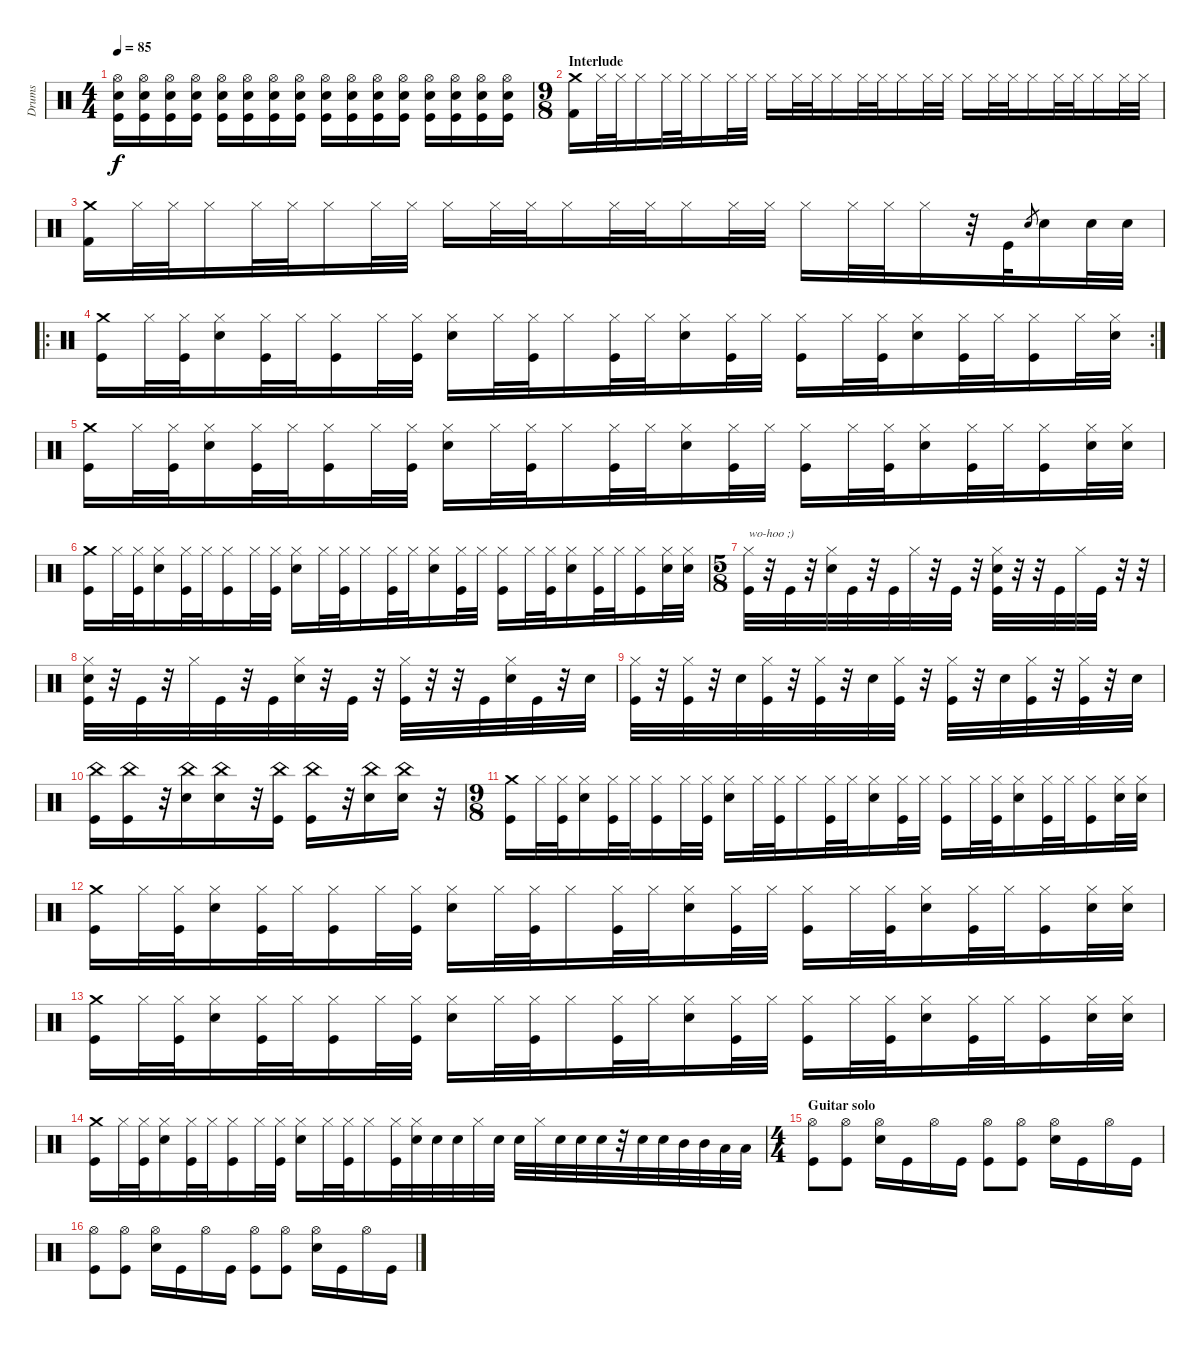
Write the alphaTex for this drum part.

\track ("Drums" "Drums") {instrument percussion}
\staff {score}
\articulation defaults
\ts (4 4)
\tempo 85
\clef neutral
\ks c
("Hi-Hat (open)" "Snare (hit) 2" "Kick (hit)").16{dy f} ("Hi-Hat (open)" "Snare (hit) 2" "Kick (hit)").16 ("Hi-Hat (open)" "Snare (hit) 2" "Kick (hit)").16 ("Hi-Hat (open)" "Snare (hit) 2" "Kick (hit)").16 ("Hi-Hat (open)" "Snare (hit) 2" "Kick (hit)").16 ("Hi-Hat (open)" "Snare (hit) 2" "Kick (hit)").16 ("Hi-Hat (open)" "Snare (hit) 2" "Kick (hit)").16 ("Hi-Hat (open)" "Snare (hit) 2" "Kick (hit)").16 ("Hi-Hat (open)" "Snare (hit) 2" "Kick (hit)").16 ("Hi-Hat (open)" "Snare (hit) 2" "Kick (hit)").16 ("Hi-Hat (open)" "Snare (hit) 2" "Kick (hit)").16 ("Hi-Hat (open)" "Snare (hit) 2" "Kick (hit)").16 ("Hi-Hat (open)" "Snare (hit) 2" "Kick (hit)").16 ("Hi-Hat (open)" "Snare (hit) 2" "Kick (hit)").16 ("Hi-Hat (open)" "Snare (hit) 2" "Kick (hit)").16 ("Hi-Hat (open)" "Snare (hit) 2" "Kick (hit)").16 |
\ts (9 8)
\section ("" "Interlude")
("Crash medium (hit)" "Kick (hit) 2").16 "Hi-Hat (closed)".32 "Hi-Hat (closed)".32 "Hi-Hat (closed)".16 "Hi-Hat (closed)".32 "Hi-Hat (closed)".32 "Hi-Hat (closed)".16 "Hi-Hat (closed)".32 "Hi-Hat (closed)".32 "Hi-Hat (closed)".16 "Hi-Hat (closed)".32 "Hi-Hat (closed)".32 "Hi-Hat (closed)".16 "Hi-Hat (closed)".32 "Hi-Hat (closed)".32 "Hi-Hat (closed)".16 "Hi-Hat (closed)".32 "Hi-Hat (closed)".32 "Hi-Hat (closed)".16 "Hi-Hat (closed)".32 "Hi-Hat (closed)".32 "Hi-Hat (closed)".16 "Hi-Hat (closed)".32 "Hi-Hat (closed)".32 "Hi-Hat (closed)".16 "Hi-Hat (closed)".32 "Hi-Hat (closed)".32 |
("Crash medium (hit)" "Kick (hit) 2").16 "Hi-Hat (closed)".32 "Hi-Hat (closed)".32 "Hi-Hat (closed)".16 "Hi-Hat (closed)".32 "Hi-Hat (closed)".32 "Hi-Hat (closed)".16 "Hi-Hat (closed)".32 "Hi-Hat (closed)".32 "Hi-Hat (closed)".16 "Hi-Hat (closed)".32 "Hi-Hat (closed)".32 "Hi-Hat (closed)".16 "Hi-Hat (closed)".32 "Hi-Hat (closed)".32 "Hi-Hat (closed)".16 "Hi-Hat (closed)".32 "Hi-Hat (closed)".32 "Hi-Hat (closed)".16 "Hi-Hat (closed)".32 "Hi-Hat (closed)".32 "Hi-Hat (closed)".16 r.32 "Kick (hit)".32 "Snare (hit) 2".8{gr} "Snare (hit) 2".16 "Snare (hit) 2".32 "Snare (hit) 2".32 |
\ro
\rc 2
("Crash medium (hit)" "Kick (hit)").16 "Hi-Hat (closed)".32 ("Hi-Hat (closed)" "Kick (hit)").32 ("Hi-Hat (closed)" "Snare (hit) 2").16 ("Hi-Hat (closed)" "Kick (hit)").32 "Hi-Hat (closed)".32 ("Hi-Hat (closed)" "Kick (hit)").16 "Hi-Hat (closed)".32 ("Hi-Hat (closed)" "Kick (hit)").32 ("Hi-Hat (closed)" "Snare (hit) 2").16 "Hi-Hat (closed)".32 ("Hi-Hat (closed)" "Kick (hit)").32 "Hi-Hat (closed)".16 ("Hi-Hat (closed)" "Kick (hit)").32 "Hi-Hat (closed)".32 ("Hi-Hat (closed)" "Snare (hit) 2").16 ("Hi-Hat (closed)" "Kick (hit)").32 "Hi-Hat (closed)".32 ("Hi-Hat (closed)" "Kick (hit)").16 "Hi-Hat (closed)".32 ("Hi-Hat (closed)" "Kick (hit)").32 ("Hi-Hat (closed)" "Snare (hit) 2").16 ("Hi-Hat (closed)" "Kick (hit)").32 "Hi-Hat (closed)".32 ("Hi-Hat (closed)" "Kick (hit)").16 "Hi-Hat (closed)".32 ("Hi-Hat (closed)" "Snare (hit) 2").32 |
("Crash medium (hit)" "Kick (hit)").16 "Hi-Hat (closed)".32 ("Hi-Hat (closed)" "Kick (hit)").32 ("Hi-Hat (closed)" "Snare (hit) 2").16 ("Hi-Hat (closed)" "Kick (hit)").32 "Hi-Hat (closed)".32 ("Hi-Hat (closed)" "Kick (hit)").16 "Hi-Hat (closed)".32 ("Hi-Hat (closed)" "Kick (hit)").32 ("Hi-Hat (closed)" "Snare (hit) 2").16 "Hi-Hat (closed)".32 ("Hi-Hat (closed)" "Kick (hit)").32 "Hi-Hat (closed)".16 ("Hi-Hat (closed)" "Kick (hit)").32 "Hi-Hat (closed)".32 ("Hi-Hat (closed)" "Snare (hit) 2").16 ("Hi-Hat (closed)" "Kick (hit)").32 "Hi-Hat (closed)".32 ("Hi-Hat (closed)" "Kick (hit)").16 "Hi-Hat (closed)".32 ("Hi-Hat (closed)" "Kick (hit)").32 ("Hi-Hat (closed)" "Snare (hit) 2").16 ("Hi-Hat (closed)" "Kick (hit)").32 "Hi-Hat (closed)".32 ("Hi-Hat (closed)" "Kick (hit)").16 ("Hi-Hat (closed)" "Snare (hit) 2").32 ("Hi-Hat (closed)" "Snare (hit) 2").32 |
("Crash medium (hit)" "Kick (hit)").16 "Hi-Hat (closed)".32 ("Hi-Hat (closed)" "Kick (hit)").32 ("Hi-Hat (closed)" "Snare (hit) 2").16 ("Hi-Hat (closed)" "Kick (hit)").32 "Hi-Hat (closed)".32 ("Hi-Hat (closed)" "Kick (hit)").16 "Hi-Hat (closed)".32 ("Hi-Hat (closed)" "Kick (hit)").32 ("Hi-Hat (closed)" "Snare (hit) 2").16 "Hi-Hat (closed)".32 ("Hi-Hat (closed)" "Kick (hit)").32 "Hi-Hat (closed)".16 ("Hi-Hat (closed)" "Kick (hit)").32 "Hi-Hat (closed)".32 ("Hi-Hat (closed)" "Snare (hit) 2").16 ("Hi-Hat (closed)" "Kick (hit)").32 "Hi-Hat (closed)".32 ("Hi-Hat (closed)" "Kick (hit)").16 "Hi-Hat (closed)".32 ("Hi-Hat (closed)" "Kick (hit)").32 ("Hi-Hat (closed)" "Snare (hit) 2").16 ("Hi-Hat (closed)" "Kick (hit)").32 "Hi-Hat (closed)".32 ("Hi-Hat (closed)" "Kick (hit)").16 ("Hi-Hat (closed)" "Snare (hit) 2").32 ("Hi-Hat (closed)" "Snare (hit) 2").32 |
\ts (5 8)
("Hi-Hat (closed)" "Kick (hit)").32{txt "wo-hoo ;)"} r.32 "Kick (hit)".32 r.32 ("Hi-Hat (closed)" "Snare (hit) 2").32 "Kick (hit)".32 r.32 "Kick (hit)".32 "Hi-Hat (closed)".32 r.32 "Kick (hit)".32 r.32 ("Hi-Hat (closed)" "Snare (hit) 2" "Kick (hit)").32 r.32 r.32 "Kick (hit)".32 "Hi-Hat (closed)".32 "Kick (hit)".32 r.32 r.32 |
("Hi-Hat (closed)" "Snare (hit) 2" "Kick (hit)").32 r.32 "Kick (hit)".32 r.32 "Hi-Hat (closed)".32 "Kick (hit)".32 r.32 "Kick (hit)".32 ("Hi-Hat (closed)" "Snare (hit) 2").32 r.32 "Kick (hit)".32 r.32 ("Hi-Hat (closed)" "Kick (hit)").32 r.32 r.32 "Kick (hit)".32 ("Hi-Hat (closed)" "Snare (hit) 2").32 "Kick (hit)".32 r.32 "Snare (hit) 2".32 |
("Hi-Hat (closed)" "Kick (hit)").32 r.32 ("Hi-Hat (closed)" "Kick (hit)").32 r.32 "Snare (hit) 2".32 ("Hi-Hat (closed)" "Kick (hit)").32 r.32 ("Hi-Hat (closed)" "Kick (hit)").32 r.32 "Snare (hit) 2".32 ("Hi-Hat (closed)" "Kick (hit)").32 r.32 ("Hi-Hat (closed)" "Kick (hit)").32 r.32 "Snare (hit) 2".32 ("Hi-Hat (closed)" "Kick (hit)").32 r.32 ("Hi-Hat (closed)" "Kick (hit)").32 r.32 "Snare (hit) 2".32 |
("China (hit)" "Kick (hit)").16 ("China (hit)" "Kick (hit)").16 r.32 ("China (hit)" "Snare (hit) 2").16 ("China (hit)" "Snare (hit) 2").16 r.32 ("China (hit)" "Kick (hit)").16 ("China (hit)" "Kick (hit)").16 r.32 ("China (hit)" "Snare (hit) 2").16 ("China (hit)" "Snare (hit) 2").16 r.32 |
\ts (9 8)
("Crash medium (hit)" "Kick (hit)").16 "Hi-Hat (closed)".32 ("Hi-Hat (closed)" "Kick (hit)").32 ("Hi-Hat (closed)" "Snare (hit) 2").16 ("Hi-Hat (closed)" "Kick (hit)").32 "Hi-Hat (closed)".32 ("Hi-Hat (closed)" "Kick (hit)").16 "Hi-Hat (closed)".32 ("Hi-Hat (closed)" "Kick (hit)").32 ("Hi-Hat (closed)" "Snare (hit) 2").16 "Hi-Hat (closed)".32 ("Hi-Hat (closed)" "Kick (hit)").32 "Hi-Hat (closed)".16 ("Hi-Hat (closed)" "Kick (hit)").32 "Hi-Hat (closed)".32 ("Hi-Hat (closed)" "Snare (hit) 2").16 ("Hi-Hat (closed)" "Kick (hit)").32 "Hi-Hat (closed)".32 ("Hi-Hat (closed)" "Kick (hit)").16 "Hi-Hat (closed)".32 ("Hi-Hat (closed)" "Kick (hit)").32 ("Hi-Hat (closed)" "Snare (hit) 2").16 ("Hi-Hat (closed)" "Kick (hit)").32 "Hi-Hat (closed)".32 ("Hi-Hat (closed)" "Kick (hit)").16 ("Hi-Hat (closed)" "Snare (hit) 2").32 ("Hi-Hat (closed)" "Snare (hit) 2").32 |
("Crash medium (hit)" "Kick (hit)").16 "Hi-Hat (closed)".32 ("Hi-Hat (closed)" "Kick (hit)").32 ("Hi-Hat (closed)" "Snare (hit) 2").16 ("Hi-Hat (closed)" "Kick (hit)").32 "Hi-Hat (closed)".32 ("Hi-Hat (closed)" "Kick (hit)").16 "Hi-Hat (closed)".32 ("Hi-Hat (closed)" "Kick (hit)").32 ("Hi-Hat (closed)" "Snare (hit) 2").16 "Hi-Hat (closed)".32 ("Hi-Hat (closed)" "Kick (hit)").32 "Hi-Hat (closed)".16 ("Hi-Hat (closed)" "Kick (hit)").32 "Hi-Hat (closed)".32 ("Hi-Hat (closed)" "Snare (hit) 2").16 ("Hi-Hat (closed)" "Kick (hit)").32 "Hi-Hat (closed)".32 ("Hi-Hat (closed)" "Kick (hit)").16 "Hi-Hat (closed)".32 ("Hi-Hat (closed)" "Kick (hit)").32 ("Hi-Hat (closed)" "Snare (hit) 2").16 ("Hi-Hat (closed)" "Kick (hit)").32 "Hi-Hat (closed)".32 ("Hi-Hat (closed)" "Kick (hit)").16 ("Hi-Hat (closed)" "Snare (hit) 2").32 ("Hi-Hat (closed)" "Snare (hit) 2").32 |
("Crash medium (hit)" "Kick (hit)").16 "Hi-Hat (closed)".32 ("Hi-Hat (closed)" "Kick (hit)").32 ("Hi-Hat (closed)" "Snare (hit) 2").16 ("Hi-Hat (closed)" "Kick (hit)").32 "Hi-Hat (closed)".32 ("Hi-Hat (closed)" "Kick (hit)").16 "Hi-Hat (closed)".32 ("Hi-Hat (closed)" "Kick (hit)").32 ("Hi-Hat (closed)" "Snare (hit) 2").16 "Hi-Hat (closed)".32 ("Hi-Hat (closed)" "Kick (hit)").32 "Hi-Hat (closed)".16 ("Hi-Hat (closed)" "Kick (hit)").32 "Hi-Hat (closed)".32 ("Hi-Hat (closed)" "Snare (hit) 2").16 ("Hi-Hat (closed)" "Kick (hit)").32 "Hi-Hat (closed)".32 ("Hi-Hat (closed)" "Kick (hit)").16 "Hi-Hat (closed)".32 ("Hi-Hat (closed)" "Kick (hit)").32 ("Hi-Hat (closed)" "Snare (hit) 2").16 ("Hi-Hat (closed)" "Kick (hit)").32 "Hi-Hat (closed)".32 ("Hi-Hat (closed)" "Kick (hit)").16 ("Hi-Hat (closed)" "Snare (hit) 2").32 ("Hi-Hat (closed)" "Snare (hit) 2").32 |
("Crash medium (hit)" "Kick (hit)").16 "Hi-Hat (closed)".32 ("Hi-Hat (closed)" "Kick (hit)").32 ("Hi-Hat (closed)" "Snare (hit) 2").16 ("Hi-Hat (closed)" "Kick (hit)").32 "Hi-Hat (closed)".32 ("Hi-Hat (closed)" "Kick (hit)").16 "Hi-Hat (closed)".32 ("Hi-Hat (closed)" "Kick (hit)").32 ("Hi-Hat (closed)" "Snare (hit) 2").16 "Hi-Hat (closed)".32 ("Hi-Hat (closed)" "Kick (hit)").32 "Hi-Hat (closed)".16 ("Hi-Hat (closed)" "Kick (hit)").32 ("Hi-Hat (closed)" "Snare (hit) 2").32 "Snare (hit) 2".32 "Snare (hit) 2".32 "Hi-Hat (closed)".32 "Snare (hit) 2".32 "Snare (hit) 2".32 "Hi-Hat (closed)".32 "Snare (hit) 2".32 "Snare (hit) 2".32 "Snare (hit) 2".32 r.32 "Snare (hit) 2".32 "Snare (hit) 2".32 "Mid Tom (hit)".32 "Mid Tom (hit)".32 "Low Tom (hit)".32 "Low Tom (hit)".32 |
\ts (4 4)
\section ("" "Guitar solo")
("Hi-Hat (open)" "Kick (hit)").8 ("Hi-Hat (open)" "Kick (hit)").8 ("Hi-Hat (open)" "Snare (hit) 2").16 "Kick (hit)".16 "Hi-Hat (open)".16 "Kick (hit)".16 ("Hi-Hat (open)" "Kick (hit)").8 ("Hi-Hat (open)" "Kick (hit)").8 ("Hi-Hat (open)" "Snare (hit) 2").16 "Kick (hit)".16 "Hi-Hat (open)".16 "Kick (hit)".16 |
("Hi-Hat (open)" "Kick (hit)").8 ("Hi-Hat (open)" "Kick (hit)").8 ("Hi-Hat (open)" "Snare (hit) 2").16 "Kick (hit)".16 "Hi-Hat (open)".16 "Kick (hit)".16 ("Hi-Hat (open)" "Kick (hit)").8 ("Hi-Hat (open)" "Kick (hit)").8 ("Hi-Hat (open)" "Snare (hit) 2").16 "Kick (hit)".16 "Hi-Hat (open)".16 "Kick (hit)".16
